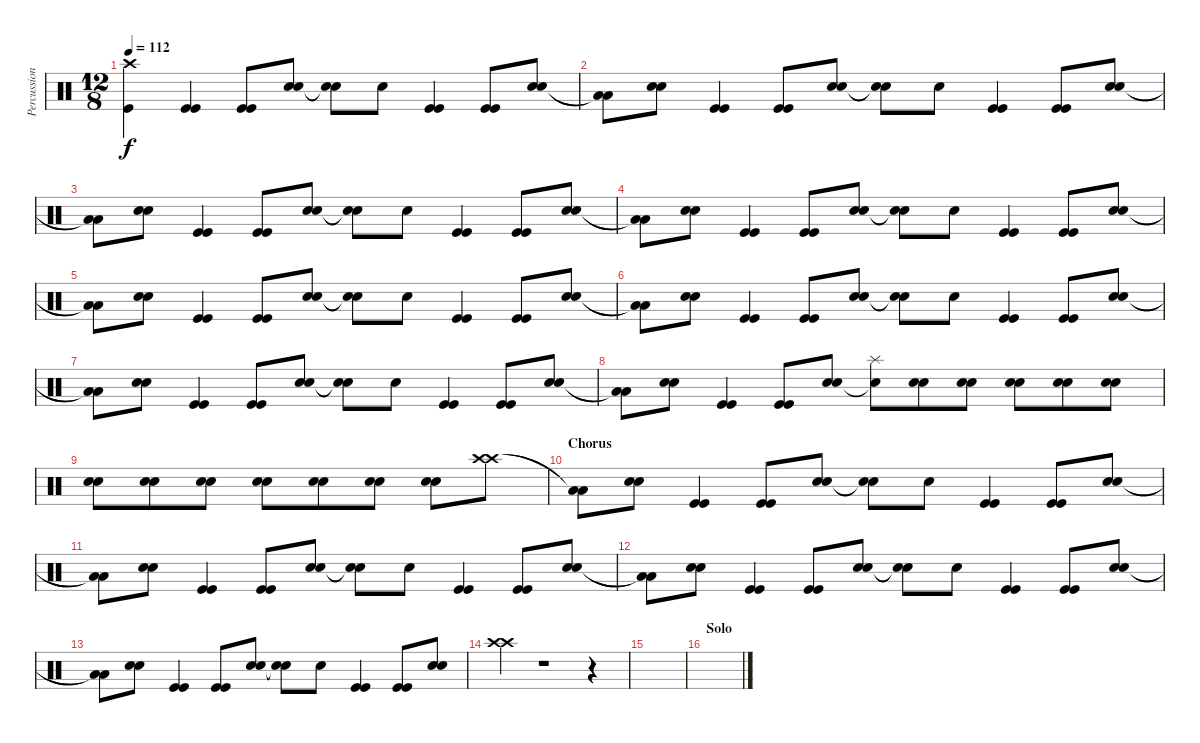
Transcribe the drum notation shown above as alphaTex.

\track ("Percussions" "Percussion") {instrument percussion}
\staff {score}
\articulation defaults
\ts (12 8)
\tempo 112
\clef neutral
\ks c
("Crash high (hit)" "Kick (hit)").4{dy f} ("Kick (hit)" "Kick (hit)").4 ("Kick (hit)" "Kick (hit)").8 ("Snare (hit) 2" "Snare (hit) 2").8 ("Snare (hit)"{t} "Snare (hit)"{t}).8 "Snare (hit) 2".8 ("Kick (hit)" "Kick (hit)").4 ("Kick (hit)" "Kick (hit)").8 ("Snare (hit) 2" "Snare (hit) 2").8 |
("Low Floor Tom (hit)"{t} "Low Floor Tom (hit)"{t}).8 ("Snare (hit) 2" "Snare (hit) 2").8 ("Kick (hit)" "Kick (hit)").4 ("Kick (hit)" "Kick (hit)").8 ("Snare (hit) 2" "Snare (hit) 2").8 ("Snare (hit)"{t} "Snare (hit)"{t}).8 "Snare (hit) 2".8 ("Kick (hit)" "Kick (hit)").4 ("Kick (hit)" "Kick (hit)").8 ("Snare (hit) 2" "Snare (hit) 2").8 |
("Low Floor Tom (hit)"{t} "Low Floor Tom (hit)"{t}).8 ("Snare (hit) 2" "Snare (hit) 2").8 ("Kick (hit)" "Kick (hit)").4 ("Kick (hit)" "Kick (hit)").8 ("Snare (hit) 2" "Snare (hit) 2").8 ("Snare (hit)"{t} "Snare (hit)"{t}).8 "Snare (hit) 2".8 ("Kick (hit)" "Kick (hit)").4 ("Kick (hit)" "Kick (hit)").8 ("Snare (hit) 2" "Snare (hit) 2").8 |
("Low Floor Tom (hit)"{t} "Low Floor Tom (hit)"{t}).8 ("Snare (hit) 2" "Snare (hit) 2").8 ("Kick (hit)" "Kick (hit)").4 ("Kick (hit)" "Kick (hit)").8 ("Snare (hit) 2" "Snare (hit) 2").8 ("Snare (hit)"{t} "Snare (hit)"{t}).8 "Snare (hit) 2".8 ("Kick (hit)" "Kick (hit)").4 ("Kick (hit)" "Kick (hit)").8 ("Snare (hit) 2" "Snare (hit) 2").8 |
("Low Floor Tom (hit)"{t} "Low Floor Tom (hit)"{t}).8 ("Snare (hit) 2" "Snare (hit) 2").8 ("Kick (hit)" "Kick (hit)").4 ("Kick (hit)" "Kick (hit)").8 ("Snare (hit) 2" "Snare (hit) 2").8 ("Snare (hit)"{t} "Snare (hit)"{t}).8 "Snare (hit) 2".8 ("Kick (hit)" "Kick (hit)").4 ("Kick (hit)" "Kick (hit)").8 ("Snare (hit) 2" "Snare (hit) 2").8 |
("Low Floor Tom (hit)"{t} "Low Floor Tom (hit)"{t}).8 ("Snare (hit) 2" "Snare (hit) 2").8 ("Kick (hit)" "Kick (hit)").4 ("Kick (hit)" "Kick (hit)").8 ("Snare (hit) 2" "Snare (hit) 2").8 ("Snare (hit)"{t} "Snare (hit)"{t}).8 "Snare (hit) 2".8 ("Kick (hit)" "Kick (hit)").4 ("Kick (hit)" "Kick (hit)").8 ("Snare (hit) 2" "Snare (hit) 2").8 |
("Low Floor Tom (hit)"{t} "Low Floor Tom (hit)"{t}).8 ("Snare (hit) 2" "Snare (hit) 2").8 ("Kick (hit)" "Kick (hit)").4 ("Kick (hit)" "Kick (hit)").8 ("Snare (hit) 2" "Snare (hit) 2").8 ("Snare (hit)"{t} "Snare (hit)"{t}).8 "Snare (hit) 2".8 ("Kick (hit)" "Kick (hit)").4 ("Kick (hit)" "Kick (hit)").8 ("Snare (hit) 2" "Snare (hit) 2").8 |
("Low Floor Tom (hit)"{t} "Low Floor Tom (hit)"{t}).8 ("Snare (hit) 2" "Snare (hit) 2").8 ("Kick (hit)" "Kick (hit)").4 ("Kick (hit)" "Kick (hit)").8 ("Snare (hit) 2" "Snare (hit) 2").8 ("Splash (hit)" "Snare (hit)"{t}).8 ("Snare (hit) 2" "Snare (hit) 2").8 ("Snare (hit) 2" "Snare (hit) 2").8 ("Snare (hit) 2" "Snare (hit) 2").8 ("Snare (hit) 2" "Snare (hit) 2").8 ("Snare (hit) 2" "Snare (hit) 2").8 |
("Snare (hit) 2" "Snare (hit) 2").8 ("Snare (hit) 2" "Snare (hit) 2").8 ("Snare (hit) 2" "Snare (hit) 2").8 ("Snare (hit) 2" "Snare (hit) 2").8 ("Snare (hit) 2" "Snare (hit) 2").8 ("Snare (hit) 2" "Snare (hit) 2").8 ("Snare (hit) 2" "Snare (hit) 2").8 ("Crash high (hit)" "Crash high (hit)").8 |
\section ("" "Chorus")
("Low Floor Tom (hit)"{t} "Low Floor Tom (hit)"{t}).8 ("Snare (hit) 2" "Snare (hit) 2").8 ("Kick (hit)" "Kick (hit)").4 ("Kick (hit)" "Kick (hit)").8 ("Snare (hit) 2" "Snare (hit) 2").8 ("Snare (hit)"{t} "Snare (hit)"{t}).8 "Snare (hit) 2".8 ("Kick (hit)" "Kick (hit)").4 ("Kick (hit)" "Kick (hit)").8 ("Snare (hit) 2" "Snare (hit) 2").8 |
("Low Floor Tom (hit)"{t} "Low Floor Tom (hit)"{t}).8 ("Snare (hit) 2" "Snare (hit) 2").8 ("Kick (hit)" "Kick (hit)").4 ("Kick (hit)" "Kick (hit)").8 ("Snare (hit) 2" "Snare (hit) 2").8 ("Snare (hit)"{t} "Snare (hit)"{t}).8 "Snare (hit) 2".8 ("Kick (hit)" "Kick (hit)").4 ("Kick (hit)" "Kick (hit)").8 ("Snare (hit) 2" "Snare (hit) 2").8 |
("Low Floor Tom (hit)"{t} "Low Floor Tom (hit)"{t}).8 ("Snare (hit) 2" "Snare (hit) 2").8 ("Kick (hit)" "Kick (hit)").4 ("Kick (hit)" "Kick (hit)").8 ("Snare (hit) 2" "Snare (hit) 2").8 ("Snare (hit)"{t} "Snare (hit)"{t}).8 "Snare (hit) 2".8 ("Kick (hit)" "Kick (hit)").4 ("Kick (hit)" "Kick (hit)").8 ("Snare (hit) 2" "Snare (hit) 2").8 |
("Low Floor Tom (hit)"{t} "Low Floor Tom (hit)"{t}).8 ("Snare (hit) 2" "Snare (hit) 2").8 ("Kick (hit)" "Kick (hit)").4 ("Kick (hit)" "Kick (hit)").8 ("Snare (hit) 2" "Snare (hit) 2").8 ("Snare (hit)"{t} "Snare (hit)"{t}).8 "Snare (hit) 2".8 ("Kick (hit)" "Kick (hit)").4 ("Kick (hit)" "Kick (hit)").8 ("Snare (hit) 2" "Snare (hit) 2").8 |
("Crash high (hit)" "Crash high (hit)").4 r.1 r.4 |
|
\section ("" "Solo")
